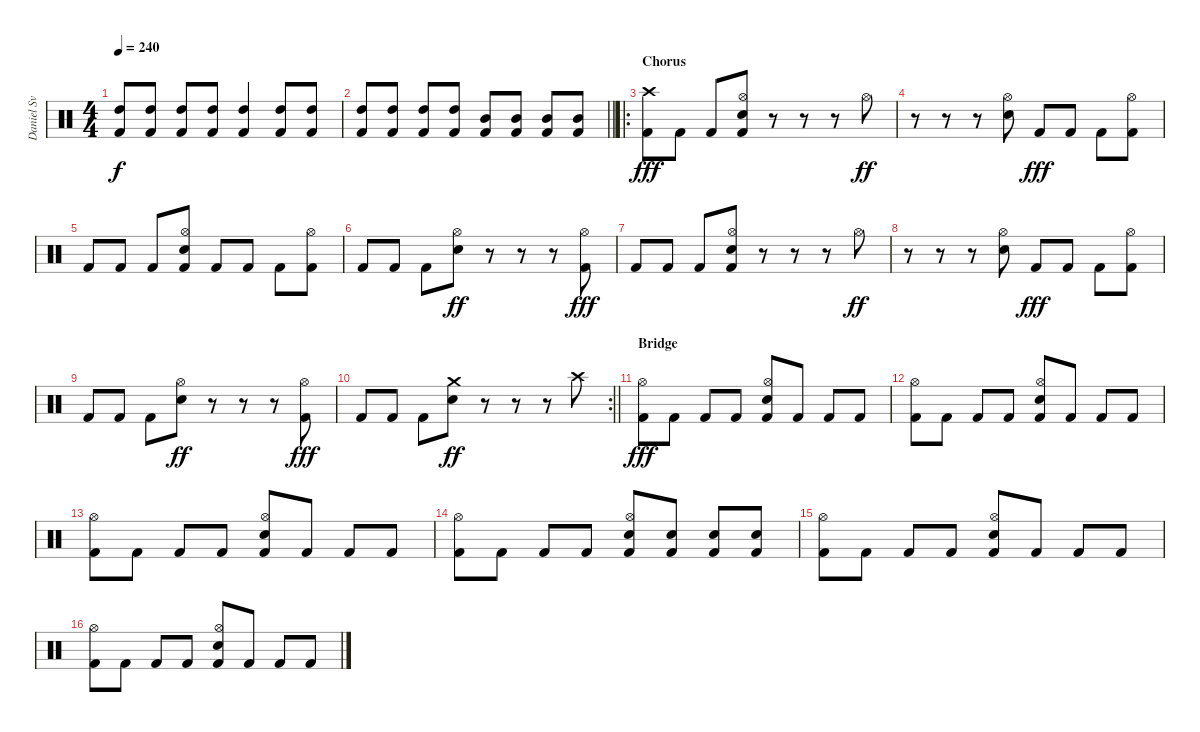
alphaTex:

\track (" Daniel Svensson" " Daniel Sv") {instrument percussion}
\staff {score}
\articulation defaults
\ts (4 4)
\tempo 240
\clef neutral
\ks c
("High Tom (hit)" "Kick (hit) 2").8{dy f} ("High Tom (hit)" "Kick (hit) 2").8 ("High Tom (hit)" "Kick (hit) 2").8 ("High Tom (hit)" "Kick (hit) 2").8 ("High Tom (hit)" "Kick (hit) 2").4 ("High Tom (hit)" "Kick (hit) 2").8 ("High Tom (hit)" "Kick (hit) 2").8 |
\barLineRight lightlight
("High Tom (hit)" "Kick (hit) 2").8 ("High Tom (hit)" "Kick (hit) 2").8 ("High Tom (hit)" "Kick (hit) 2").8 ("High Tom (hit)" "Kick (hit) 2").8 ("Mid Tom (hit)" "Kick (hit) 2").8 ("Mid Tom (hit)" "Kick (hit) 2").8 ("Mid Tom (hit)" "Kick (hit) 2").8 ("Mid Tom (hit)" "Kick (hit) 2").8 |
\ro
\section ("" "Chorus")
("Crash high (hit)" "Kick (hit) 2").8{dy fff} "Kick (hit) 2".8 "Kick (hit) 2".8 ("Hi-Hat (open)" "Electric Snare (hit)" "Kick (hit) 2").8 r.8 r.8 r.8 "Hi-Hat (open)".8{dy ff} |
r.8 r.8 r.8 ("Hi-Hat (open)" "Electric Snare (hit)").8 "Kick (hit) 2".8{dy fff} "Kick (hit) 2".8 "Kick (hit) 2".8 ("Hi-Hat (open)" "Kick (hit) 2").8 |
"Kick (hit) 2".8 "Kick (hit) 2".8 "Kick (hit) 2".8 ("Hi-Hat (open)" "Electric Snare (hit)" "Kick (hit) 2").8 "Kick (hit) 2".8 "Kick (hit) 2".8 "Kick (hit) 2".8 ("Hi-Hat (open)" "Kick (hit) 2").8 |
"Kick (hit) 2".8 "Kick (hit) 2".8 "Kick (hit) 2".8 ("Hi-Hat (open)" "Electric Snare (hit)").8{dy ff} r.8 r.8 r.8 ("Hi-Hat (open)" "Kick (hit) 2").8{dy fff} |
"Kick (hit) 2".8 "Kick (hit) 2".8 "Kick (hit) 2".8 ("Hi-Hat (open)" "Electric Snare (hit)" "Kick (hit) 2").8 r.8 r.8 r.8 "Hi-Hat (open)".8{dy ff} |
r.8 r.8 r.8 ("Hi-Hat (open)" "Electric Snare (hit)").8 "Kick (hit) 2".8{dy fff} "Kick (hit) 2".8 "Kick (hit) 2".8 ("Hi-Hat (open)" "Kick (hit) 2").8 |
"Kick (hit) 2".8 "Kick (hit) 2".8 "Kick (hit) 2".8 ("Hi-Hat (open)" "Electric Snare (hit)").8{dy ff} r.8 r.8 r.8 ("Hi-Hat (open)" "Kick (hit) 2").8{dy fff} |
\rc 2
\barLineRight lightlight "Kick (hit) 2".8 "Kick (hit) 2".8 "Kick (hit) 2".8
("Crash medium (hit)" "Electric Snare (hit)").8{dy ff} r.8 r.8 r.8 "Crash high (hit)".8 |
\section ("" "Bridge")
("Hi-Hat (open)" "Kick (hit) 2").8{dy fff} "Kick (hit) 2".8 "Kick (hit) 2".8 "Kick (hit) 2".8 ("Hi-Hat (open)" "Electric Snare (hit)" "Kick (hit) 2").8 "Kick (hit) 2".8 "Kick (hit) 2".8 "Kick (hit) 2".8 |
("Hi-Hat (open)" "Kick (hit) 2").8 "Kick (hit) 2".8 "Kick (hit) 2".8 "Kick (hit) 2".8 ("Hi-Hat (open)" "Electric Snare (hit)" "Kick (hit) 2").8 "Kick (hit) 2".8 "Kick (hit) 2".8 "Kick (hit) 2".8 |
("Hi-Hat (open)" "Kick (hit) 2").8 "Kick (hit) 2".8 "Kick (hit) 2".8 "Kick (hit) 2".8 ("Hi-Hat (open)" "Electric Snare (hit)" "Kick (hit) 2").8 "Kick (hit) 2".8 "Kick (hit) 2".8 "Kick (hit) 2".8 |
("Hi-Hat (open)" "Kick (hit) 2").8 "Kick (hit) 2".8 "Kick (hit) 2".8 "Kick (hit) 2".8 ("Hi-Hat (open)" "Electric Snare (hit)" "Kick (hit) 2").8 ("Electric Snare (hit)" "Kick (hit) 2").8 ("Electric Snare (hit)" "Kick (hit) 2").8 ("Electric Snare (hit)" "Kick (hit) 2").8 |
("Hi-Hat (open)" "Kick (hit) 2").8 "Kick (hit) 2".8 "Kick (hit) 2".8 "Kick (hit) 2".8 ("Hi-Hat (open)" "Electric Snare (hit)" "Kick (hit) 2").8 "Kick (hit) 2".8 "Kick (hit) 2".8 "Kick (hit) 2".8 |
("Hi-Hat (open)" "Kick (hit) 2").8 "Kick (hit) 2".8 "Kick (hit) 2".8 "Kick (hit) 2".8 ("Hi-Hat (open)" "Electric Snare (hit)" "Kick (hit) 2").8 "Kick (hit) 2".8 "Kick (hit) 2".8 "Kick (hit) 2".8
